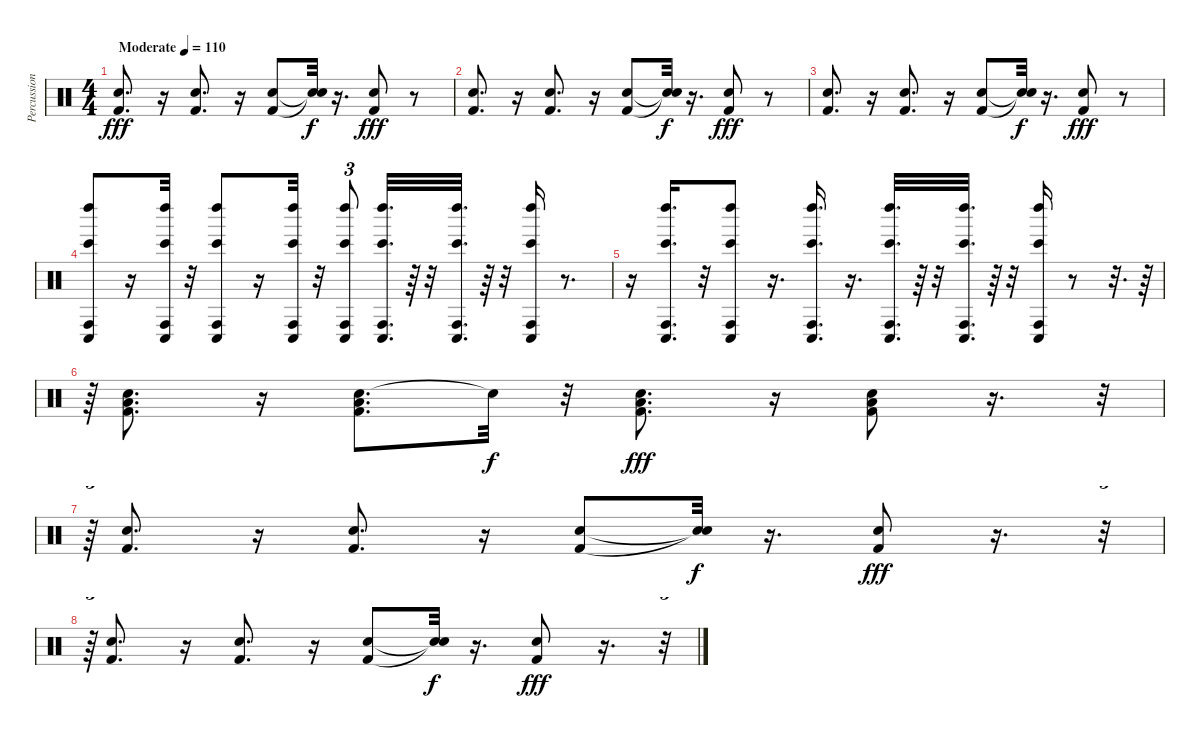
\track ("Percussion" "Percussion") {instrument percussion}
\staff {score}
\articulation defaults
\ts (4 4)
\tempo (110 "Moderate")
\clef neutral
\ks c
("Hand Clap (hit)" "Kick (hit) 2").8{d dy fff} r.16 ("Hand Clap (hit)" "Kick (hit) 2").8{d} r.16 ("Hand Clap (hit)" "Kick (hit) 2").8 ("Snare (hit)"{t} "Snare (hit)"{t}).32{dy f} r.16{d} ("Kick (hit) 2" "Hand Clap (hit)").8{dy fff} r.8 |
("Kick (hit) 2" "Hand Clap (hit)").8{d} r.16 ("Kick (hit) 2" "Hand Clap (hit)").8{d} r.16 ("Hand Clap (hit)" "Kick (hit) 2").8 ("Snare (hit)"{t} "Snare (hit)"{t}).32{dy f} r.16{d} ("Hand Clap (hit)" "Kick (hit) 2").8{dy fff} r.8 |
("Kick (hit) 2" "Hand Clap (hit)").8{d} r.16 ("Hand Clap (hit)" "Kick (hit) 2").8{d} r.16 ("Kick (hit) 2" "Hand Clap (hit)").8 ("Snare (hit)"{t} "Snare (hit)"{t}).32{dy f} r.16{d} ("Hand Clap (hit)" "Kick (hit) 2").8{dy fff} r.8 |
("Conga high (hit)" "Left Maraca (hit)" "Conga low (hit)" "Bongo High (hit)").8 r.16 ("Bongo High (hit)" "Conga low (hit)" "Left Maraca (hit)" "Conga high (hit)").32 r.32 ("Conga low (hit)" "Conga high (hit)" "Left Maraca (hit)" "Bongo High (hit)").8 r.16 ("Bongo High (hit)" "Conga low (hit)" "Left Maraca (hit)" "Conga high (hit)").32 r.32 ("Left Maraca (hit)" "Conga low (hit)" "Bongo High (hit)" "Conga high (hit)").8{tu (3 2)} ("Conga low (hit)" "Bongo High (hit)" "Left Maraca (hit)" "Conga high (hit)").32{d} r.64 r.32 ("Left Maraca (hit)" "Conga high (hit)" "Bongo High (hit)" "Conga low (hit)").32{d} r.64 r.32 ("Conga high (hit)" "Conga low (hit)" "Bongo High (hit)" "Left Maraca (hit)").16 r.8{d} |
r.16 ("Conga low (hit)" "Bongo High (hit)" "Left Maraca (hit)" "Conga high (hit)").16{d} r.32 ("Bongo High (hit)" "Left Maraca (hit)" "Conga low (hit)" "Conga high (hit)").8 r.16{d} ("Conga low (hit)" "Bongo High (hit)" "Conga high (hit)" "Left Maraca (hit)").16{d} r.16{d} ("Conga low (hit)" "Conga high (hit)" "Left Maraca (hit)" "Bongo High (hit)").32{d} r.64 r.32 ("Left Maraca (hit)" "Conga high (hit)" "Conga low (hit)" "Bongo High (hit)").32{d} r.64 r.32 ("Bongo High (hit)" "Conga high (hit)" "Left Maraca (hit)" "Conga low (hit)").16 r.8 r.32{d} r.64 |
r.64{tu (3 2)} ("Kick (hit) 2" "Hand Clap (hit)" "Low Floor Tom (hit)").8{d} r.16 ("Hand Clap (hit)" "Kick (hit) 2" "Low Floor Tom (hit)").8{d} "Snare (hit)"{t}.32{dy f} r.32 ("Kick (hit) 2" "Low Floor Tom (hit)" "Hand Clap (hit)").8{d dy fff} r.16 ("Low Floor Tom (hit)" "Hand Clap (hit)" "Kick (hit) 2").8 r.16{d} r.32{tu (3 2)} |
r.64{tu (3 2)} ("Hand Clap (hit)" "Kick (hit) 2").8{d} r.16 ("Hand Clap (hit)" "Kick (hit) 2").8{d} r.16 ("Hand Clap (hit)" "Kick (hit) 2").8 ("Snare (hit)"{t} "Snare (hit)"{t}).32{dy f} r.16{d} ("Hand Clap (hit)" "Kick (hit) 2").8{dy fff} r.16{d} r.32{tu (3 2)} |
r.64{tu (3 2)} ("Hand Clap (hit)" "Kick (hit) 2").8{d} r.16 ("Hand Clap (hit)" "Kick (hit) 2").8{d} r.16 ("Hand Clap (hit)" "Kick (hit) 2").8 ("Snare (hit)"{t} "Snare (hit)"{t}).32{dy f} r.16{d} ("Hand Clap (hit)" "Kick (hit) 2").8{dy fff} r.16{d} r.32{tu (3 2)}
